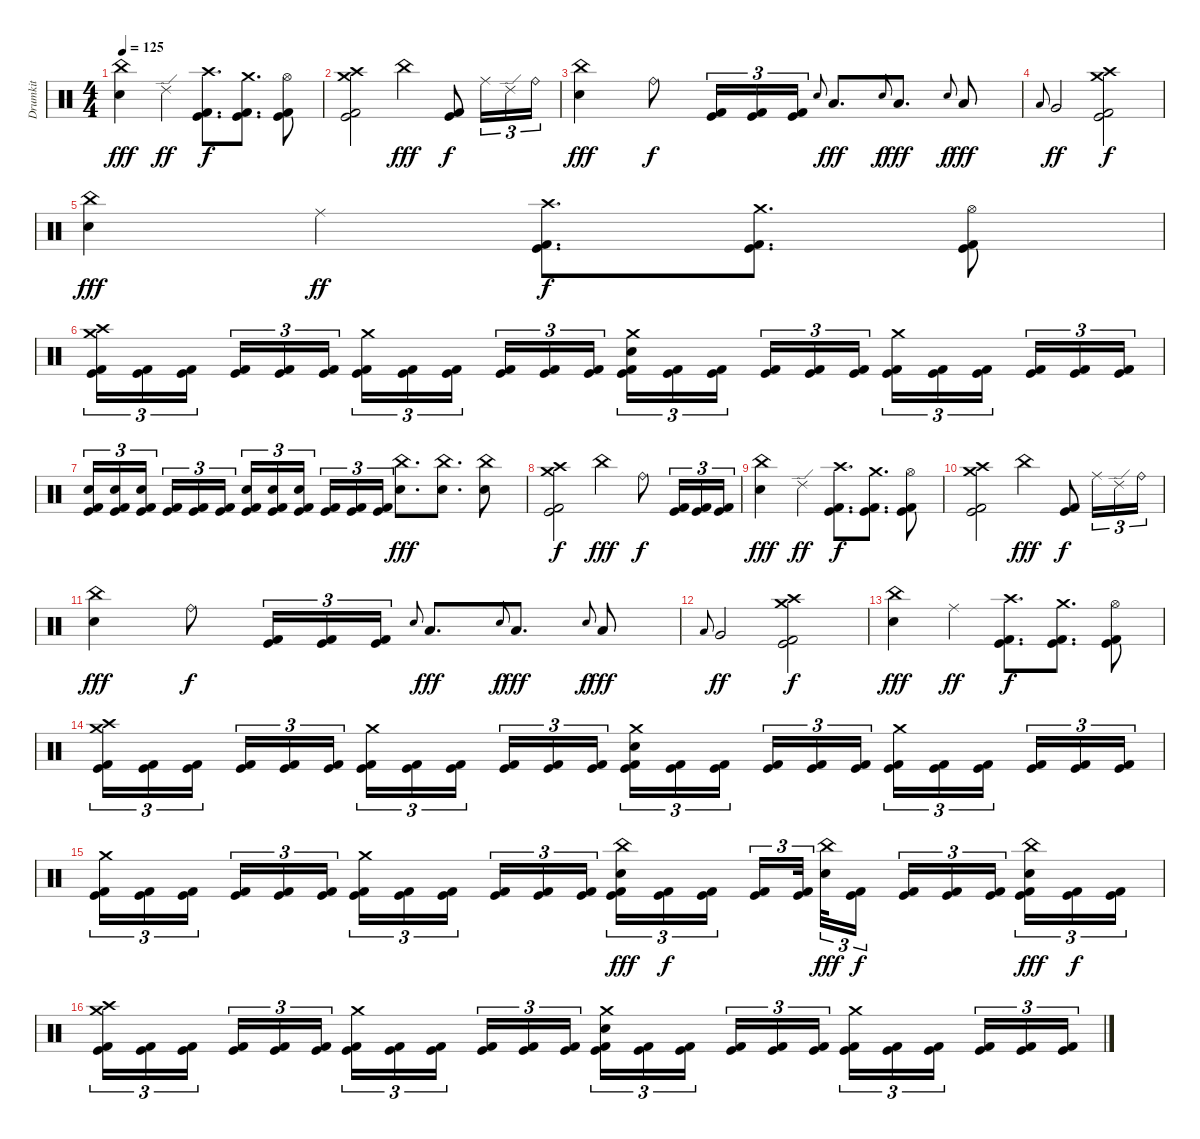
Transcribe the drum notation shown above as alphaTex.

\track ("Drumkit" "Drumkit") {instrument percussion}
\staff {score}
\articulation defaults
\ts (4 4)
\tempo 125
\clef neutral
\ks c
("China (hit)" "Electric Snare (hit)").4{dy fff} "Ride (edge) 2".4{dy ff} ("Crash high (hit)" "Kick (hit)" "Kick (hit) 2").8{d dy f} ("Crash medium (hit)" "Kick (hit)" "Kick (hit) 2").8{d} ("Hi-Hat (open)" "Kick (hit)" "Kick (hit) 2").8 |
("Crash high (hit)" "Crash medium (hit)" "Kick (hit)" "Kick (hit) 2").2 "China (hit)".4{dy fff} ("Kick (hit)" "Kick (hit) 2").8{dy f} "Ride (middle)".16{tu (3 2)} "Ride (edge) 2".16{tu (3 2)} "Ride (bell)".16{tu (3 2)} |
("China (hit)" "Electric Snare (hit)").4{dy fff} "Ride (bell)".8{dy f} ("Kick (hit)" "Kick (hit) 2").16{tu (3 2)} ("Kick (hit)" "Kick (hit) 2").16{tu (3 2)} ("Kick (hit)" "Kick (hit) 2").16{tu (3 2)} "Electric Snare (hit)".8{gr onbeat} "Low Floor Tom (hit)".8{d dy fff} "Electric Snare (hit)".8{gr onbeat dy f} "Low Floor Tom (hit)".8{d dy fff} "Electric Snare (hit)".8{gr onbeat dy f} "Low Floor Tom (hit)".8{dy fff} |
"Low Floor Tom (hit)".8{gr onbeat} "Very Low Tom (hit)".2{dy ff} ("Crash high (hit)" "Crash medium (hit)" "Kick (hit)" "Kick (hit) 2").2{dy f} |
("China (hit)" "Electric Snare (hit)").4{dy fff} "Ride (middle)".4{dy ff} ("Crash high (hit)" "Kick (hit)" "Kick (hit) 2").8{d dy f} ("Crash medium (hit)" "Kick (hit)" "Kick (hit) 2").8{d} ("Hi-Hat (open)" "Kick (hit)" "Kick (hit) 2").8 |
("Crash high (hit)" "Crash medium (hit)" "Kick (hit)" "Kick (hit) 2").16{tu (3 2)} ("Kick (hit)" "Kick (hit) 2").16{tu (3 2)} ("Kick (hit)" "Kick (hit) 2").16{tu (3 2) beam splitsecondary} ("Kick (hit)" "Kick (hit) 2").16{tu (3 2)} ("Kick (hit)" "Kick (hit) 2").16{tu (3 2)} ("Kick (hit)" "Kick (hit) 2").16{tu (3 2)} ("Crash medium (hit)" "Kick (hit)" "Kick (hit) 2").16{tu (3 2)} ("Kick (hit)" "Kick (hit) 2").16{tu (3 2)} ("Kick (hit)" "Kick (hit) 2").16{tu (3 2) beam splitsecondary} ("Kick (hit)" "Kick (hit) 2").16{tu (3 2)} ("Kick (hit)" "Kick (hit) 2").16{tu (3 2)} ("Kick (hit)" "Kick (hit) 2").16{tu (3 2)} ("Crash medium (hit)" "Electric Snare (hit)" "Kick (hit)" "Kick (hit) 2").16{tu (3 2)} ("Kick (hit)" "Kick (hit) 2").16{tu (3 2)} ("Kick (hit)" "Kick (hit) 2").16{tu (3 2) beam splitsecondary} ("Kick (hit)" "Kick (hit) 2").16{tu (3 2)} ("Kick (hit)" "Kick (hit) 2").16{tu (3 2)} ("Kick (hit)" "Kick (hit) 2").16{tu (3 2)} ("Crash medium (hit)" "Kick (hit)" "Kick (hit) 2").16{tu (3 2)} ("Kick (hit)" "Kick (hit) 2").16{tu (3 2)} ("Kick (hit)" "Kick (hit) 2").16{tu (3 2) beam splitsecondary} ("Kick (hit)" "Kick (hit) 2").16{tu (3 2)} ("Kick (hit)" "Kick (hit) 2").16{tu (3 2)} ("Kick (hit)" "Kick (hit) 2").16{tu (3 2)} |
("Electric Snare (hit)" "Kick (hit)" "Kick (hit) 2").16{tu (3 2)} ("Electric Snare (hit)" "Kick (hit)" "Kick (hit) 2").16{tu (3 2)} ("Electric Snare (hit)" "Kick (hit)" "Kick (hit) 2").16{tu (3 2) beam splitsecondary} ("Kick (hit)" "Kick (hit) 2").16{tu (3 2)} ("Kick (hit)" "Kick (hit) 2").16{tu (3 2)} ("Kick (hit)" "Kick (hit) 2").16{tu (3 2)} ("Electric Snare (hit)" "Kick (hit)" "Kick (hit) 2").16{tu (3 2)} ("Electric Snare (hit)" "Kick (hit)" "Kick (hit) 2").16{tu (3 2)} ("Electric Snare (hit)" "Kick (hit)" "Kick (hit) 2").16{tu (3 2) beam splitsecondary} ("Kick (hit)" "Kick (hit) 2").16{tu (3 2)} ("Kick (hit)" "Kick (hit) 2").16{tu (3 2)} ("Kick (hit)" "Kick (hit) 2").16{tu (3 2)} ("China (hit)" "Electric Snare (hit)").8{d dy fff} ("China (hit)" "Electric Snare (hit)").8{d} ("China (hit)" "Electric Snare (hit)").8 |
("Crash high (hit)" "Crash medium (hit)" "Kick (hit)" "Kick (hit) 2").2{dy f} "China (hit)".4{dy fff} "Ride (bell)".8{dy f} ("Kick (hit)" "Kick (hit) 2").16{tu (3 2)} ("Kick (hit)" "Kick (hit) 2").16{tu (3 2)} ("Kick (hit)" "Kick (hit) 2").16{tu (3 2)} |
("China (hit)" "Electric Snare (hit)").4{dy fff} "Ride (edge) 2".4{dy ff} ("Crash high (hit)" "Kick (hit)" "Kick (hit) 2").8{d dy f} ("Crash medium (hit)" "Kick (hit)" "Kick (hit) 2").8{d} ("Hi-Hat (open)" "Kick (hit)" "Kick (hit) 2").8 |
("Crash high (hit)" "Crash medium (hit)" "Kick (hit)" "Kick (hit) 2").2 "China (hit)".4{dy fff} ("Kick (hit)" "Kick (hit) 2").8{dy f} "Ride (middle)".16{tu (3 2)} "Ride (edge) 2".16{tu (3 2)} "Ride (bell)".16{tu (3 2)} |
("China (hit)" "Electric Snare (hit)").4{dy fff} "Ride (bell)".8{dy f} ("Kick (hit)" "Kick (hit) 2").16{tu (3 2)} ("Kick (hit)" "Kick (hit) 2").16{tu (3 2)} ("Kick (hit)" "Kick (hit) 2").16{tu (3 2)} "Electric Snare (hit)".8{gr onbeat} "Low Floor Tom (hit)".8{d dy fff} "Electric Snare (hit)".8{gr onbeat dy f} "Low Floor Tom (hit)".8{d dy fff} "Electric Snare (hit)".8{gr onbeat dy f} "Low Floor Tom (hit)".8{dy fff} |
"Low Floor Tom (hit)".8{gr onbeat} "Very Low Tom (hit)".2{dy ff} ("Crash high (hit)" "Crash medium (hit)" "Kick (hit)" "Kick (hit) 2").2{dy f} |
("China (hit)" "Electric Snare (hit)").4{dy fff} "Ride (middle)".4{dy ff} ("Crash high (hit)" "Kick (hit)" "Kick (hit) 2").8{d dy f} ("Crash medium (hit)" "Kick (hit)" "Kick (hit) 2").8{d} ("Hi-Hat (open)" "Kick (hit)" "Kick (hit) 2").8 |
("Crash high (hit)" "Crash medium (hit)" "Kick (hit)" "Kick (hit) 2").16{tu (3 2)} ("Kick (hit)" "Kick (hit) 2").16{tu (3 2)} ("Kick (hit)" "Kick (hit) 2").16{tu (3 2) beam splitsecondary} ("Kick (hit)" "Kick (hit) 2").16{tu (3 2)} ("Kick (hit)" "Kick (hit) 2").16{tu (3 2)} ("Kick (hit)" "Kick (hit) 2").16{tu (3 2)} ("Crash medium (hit)" "Kick (hit)" "Kick (hit) 2").16{tu (3 2)} ("Kick (hit)" "Kick (hit) 2").16{tu (3 2)} ("Kick (hit)" "Kick (hit) 2").16{tu (3 2) beam splitsecondary} ("Kick (hit)" "Kick (hit) 2").16{tu (3 2)} ("Kick (hit)" "Kick (hit) 2").16{tu (3 2)} ("Kick (hit)" "Kick (hit) 2").16{tu (3 2)} ("Crash medium (hit)" "Electric Snare (hit)" "Kick (hit)" "Kick (hit) 2").16{tu (3 2)} ("Kick (hit)" "Kick (hit) 2").16{tu (3 2)} ("Kick (hit)" "Kick (hit) 2").16{tu (3 2) beam splitsecondary} ("Kick (hit)" "Kick (hit) 2").16{tu (3 2)} ("Kick (hit)" "Kick (hit) 2").16{tu (3 2)} ("Kick (hit)" "Kick (hit) 2").16{tu (3 2)} ("Crash medium (hit)" "Kick (hit)" "Kick (hit) 2").16{tu (3 2)} ("Kick (hit)" "Kick (hit) 2").16{tu (3 2)} ("Kick (hit)" "Kick (hit) 2").16{tu (3 2) beam splitsecondary} ("Kick (hit)" "Kick (hit) 2").16{tu (3 2)} ("Kick (hit)" "Kick (hit) 2").16{tu (3 2)} ("Kick (hit)" "Kick (hit) 2").16{tu (3 2)} |
("Crash medium (hit)" "Kick (hit)" "Kick (hit) 2").16{tu (3 2)} ("Kick (hit)" "Kick (hit) 2").16{tu (3 2)} ("Kick (hit)" "Kick (hit) 2").16{tu (3 2) beam splitsecondary} ("Kick (hit)" "Kick (hit) 2").16{tu (3 2)} ("Kick (hit)" "Kick (hit) 2").16{tu (3 2)} ("Kick (hit)" "Kick (hit) 2").16{tu (3 2)} ("Crash medium (hit)" "Kick (hit)" "Kick (hit) 2").16{tu (3 2)} ("Kick (hit)" "Kick (hit) 2").16{tu (3 2)} ("Kick (hit)" "Kick (hit) 2").16{tu (3 2) beam splitsecondary} ("Kick (hit)" "Kick (hit) 2").16{tu (3 2)} ("Kick (hit)" "Kick (hit) 2").16{tu (3 2)} ("Kick (hit)" "Kick (hit) 2").16{tu (3 2)} ("China (hit)" "Electric Snare (hit)" "Kick (hit)" "Kick (hit) 2").16{tu (3 2) dy fff} ("Kick (hit)" "Kick (hit) 2").16{tu (3 2) dy f} ("Kick (hit)" "Kick (hit) 2").16{tu (3 2) beam splitsecondary} ("Kick (hit)" "Kick (hit) 2").16{tu (3 2)} ("Kick (hit)" "Kick (hit) 2").32{tu (3 2) beam splitsecondary} ("China (hit)" "Electric Snare (hit)").32{tu (3 2) dy fff} ("Kick (hit)" "Kick (hit) 2").16{tu (3 2) dy f} ("Kick (hit)" "Kick (hit) 2").16{tu (3 2)} ("Kick (hit)" "Kick (hit) 2").16{tu (3 2)} ("Kick (hit)" "Kick (hit) 2").16{tu (3 2) beam splitsecondary} ("China (hit)" "Electric Snare (hit)" "Kick (hit)" "Kick (hit) 2").16{tu (3 2) dy fff} ("Kick (hit)" "Kick (hit) 2").16{tu (3 2) dy f} ("Kick (hit)" "Kick (hit) 2").16{tu (3 2)} |
("Crash high (hit)" "Crash medium (hit)" "Kick (hit)" "Kick (hit) 2").16{tu (3 2)} ("Kick (hit)" "Kick (hit) 2").16{tu (3 2)} ("Kick (hit)" "Kick (hit) 2").16{tu (3 2) beam splitsecondary} ("Kick (hit)" "Kick (hit) 2").16{tu (3 2)} ("Kick (hit)" "Kick (hit) 2").16{tu (3 2)} ("Kick (hit)" "Kick (hit) 2").16{tu (3 2)} ("Crash medium (hit)" "Kick (hit)" "Kick (hit) 2").16{tu (3 2)} ("Kick (hit)" "Kick (hit) 2").16{tu (3 2)} ("Kick (hit)" "Kick (hit) 2").16{tu (3 2) beam splitsecondary} ("Kick (hit)" "Kick (hit) 2").16{tu (3 2)} ("Kick (hit)" "Kick (hit) 2").16{tu (3 2)} ("Kick (hit)" "Kick (hit) 2").16{tu (3 2)} ("Crash medium (hit)" "Electric Snare (hit)" "Kick (hit)" "Kick (hit) 2").16{tu (3 2)} ("Kick (hit)" "Kick (hit) 2").16{tu (3 2)} ("Kick (hit)" "Kick (hit) 2").16{tu (3 2) beam splitsecondary} ("Kick (hit)" "Kick (hit) 2").16{tu (3 2)} ("Kick (hit)" "Kick (hit) 2").16{tu (3 2)} ("Kick (hit)" "Kick (hit) 2").16{tu (3 2)} ("Crash medium (hit)" "Kick (hit)" "Kick (hit) 2").16{tu (3 2)} ("Kick (hit)" "Kick (hit) 2").16{tu (3 2)} ("Kick (hit)" "Kick (hit) 2").16{tu (3 2) beam splitsecondary} ("Kick (hit)" "Kick (hit) 2").16{tu (3 2)} ("Kick (hit)" "Kick (hit) 2").16{tu (3 2)} ("Kick (hit)" "Kick (hit) 2").16{tu (3 2)}
